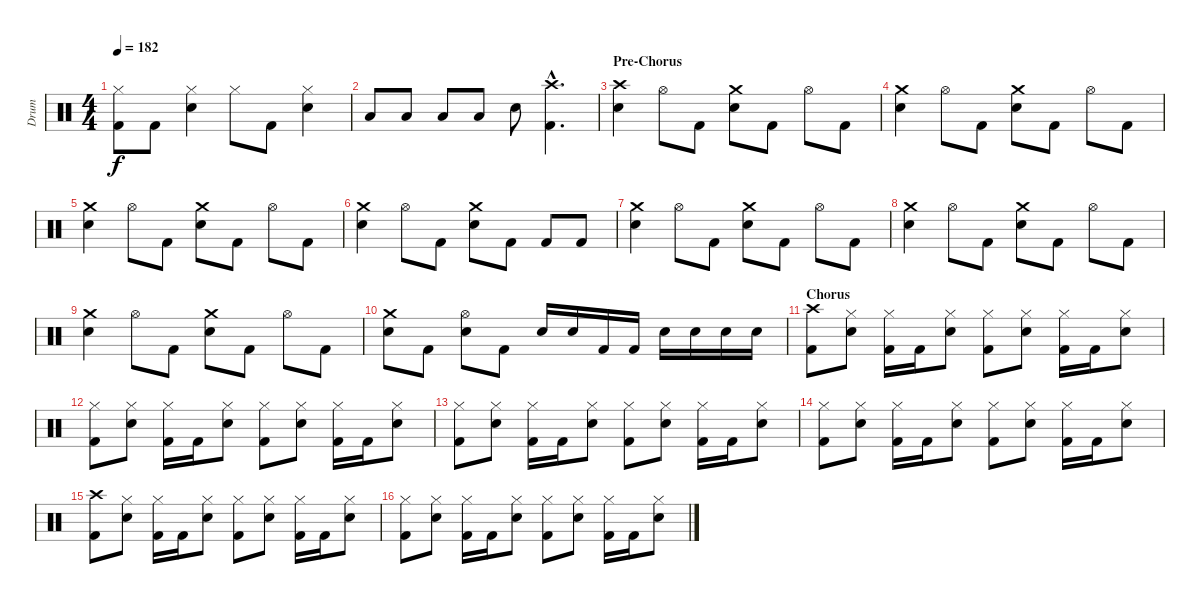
\track ("Drum" "Drum") {instrument percussion}
\staff {score}
\articulation defaults
\ts (4 4)
\tempo 182
\clef neutral
\ks c
("Hi-Hat (closed)" "Kick (hit) 2").8{dy f} "Kick (hit) 2".8 ("Hi-Hat (closed)" "Electric Snare (hit)").4 "Hi-Hat (closed)".8 "Kick (hit) 2".8 ("Hi-Hat (closed)" "Electric Snare (hit)").4 |
"Low Tom (hit)".8 "Low Tom (hit)".8 "Low Tom (hit)".8 "Low Tom (hit)".8 "Electric Snare (hit)".8 ("Crash high (hit)"{hac} "Kick (hit) 2"{hac}).4{d} |
\section ("" "Pre-Chorus")
("Crash high (hit)" "Electric Snare (hit)").4 "Hi-Hat (open)".8 "Kick (hit) 2".8 ("Crash medium (hit)" "Electric Snare (hit)").8 "Kick (hit) 2".8 "Hi-Hat (open)".8 "Kick (hit) 2".8 |
("Crash medium (hit)" "Electric Snare (hit)").4 "Hi-Hat (open)".8 "Kick (hit) 2".8 ("Crash medium (hit)" "Electric Snare (hit)").8 "Kick (hit) 2".8 "Hi-Hat (open)".8 "Kick (hit) 2".8 |
("Crash medium (hit)" "Electric Snare (hit)").4 "Hi-Hat (open)".8 "Kick (hit) 2".8 ("Crash medium (hit)" "Electric Snare (hit)").8 "Kick (hit) 2".8 "Hi-Hat (open)".8 "Kick (hit) 2".8 |
("Crash medium (hit)" "Electric Snare (hit)").4 "Hi-Hat (open)".8 "Kick (hit) 2".8 ("Crash medium (hit)" "Electric Snare (hit)").8 "Kick (hit) 2".8 "Kick (hit) 2".8 "Kick (hit) 2".8 |
("Crash medium (hit)" "Electric Snare (hit)").4 "Hi-Hat (open)".8 "Kick (hit) 2".8 ("Crash medium (hit)" "Electric Snare (hit)").8 "Kick (hit) 2".8 "Hi-Hat (open)".8 "Kick (hit) 2".8 |
("Crash medium (hit)" "Electric Snare (hit)").4 "Hi-Hat (open)".8 "Kick (hit) 2".8 ("Crash medium (hit)" "Electric Snare (hit)").8 "Kick (hit) 2".8 "Hi-Hat (open)".8 "Kick (hit) 2".8 |
("Crash medium (hit)" "Electric Snare (hit)").4 "Hi-Hat (open)".8 "Kick (hit) 2".8 ("Crash medium (hit)" "Electric Snare (hit)").8 "Kick (hit) 2".8 "Hi-Hat (open)".8 "Kick (hit) 2".8 |
("Crash medium (hit)" "Electric Snare (hit)").8 "Kick (hit) 2".8 ("Hi-Hat (open)" "Electric Snare (hit)").8 "Kick (hit) 2".8 "Electric Snare (hit)".16 "Electric Snare (hit)".16 "Kick (hit) 2".16 "Kick (hit) 2".16 "Electric Snare (hit)".16 "Electric Snare (hit)".16 "Electric Snare (hit)".16 "Electric Snare (hit)".16 |
\section ("" "Chorus")
("Crash high (hit)" "Kick (hit) 2").8 ("Hi-Hat (closed)" "Electric Snare (hit)").8 ("Hi-Hat (closed)" "Kick (hit) 2").16 "Kick (hit) 2".16 ("Hi-Hat (closed)" "Electric Snare (hit)").8 ("Hi-Hat (closed)" "Kick (hit) 2").8 ("Hi-Hat (closed)" "Electric Snare (hit)").8 ("Hi-Hat (closed)" "Kick (hit) 2").16 "Kick (hit) 2".16 ("Hi-Hat (closed)" "Electric Snare (hit)").8 |
("Hi-Hat (closed)" "Kick (hit) 2").8 ("Hi-Hat (closed)" "Electric Snare (hit)").8 ("Hi-Hat (closed)" "Kick (hit) 2").16 "Kick (hit) 2".16 ("Hi-Hat (closed)" "Electric Snare (hit)").8 ("Hi-Hat (closed)" "Kick (hit) 2").8 ("Hi-Hat (closed)" "Electric Snare (hit)").8 ("Hi-Hat (closed)" "Kick (hit) 2").16 "Kick (hit) 2".16 ("Hi-Hat (closed)" "Electric Snare (hit)").8 |
("Hi-Hat (closed)" "Kick (hit) 2").8 ("Hi-Hat (closed)" "Electric Snare (hit)").8 ("Hi-Hat (closed)" "Kick (hit) 2").16 "Kick (hit) 2".16 ("Hi-Hat (closed)" "Electric Snare (hit)").8 ("Hi-Hat (closed)" "Kick (hit) 2").8 ("Hi-Hat (closed)" "Electric Snare (hit)").8 ("Hi-Hat (closed)" "Kick (hit) 2").16 "Kick (hit) 2".16 ("Hi-Hat (closed)" "Electric Snare (hit)").8 |
("Hi-Hat (closed)" "Kick (hit) 2").8 ("Hi-Hat (closed)" "Electric Snare (hit)").8 ("Hi-Hat (closed)" "Kick (hit) 2").16 "Kick (hit) 2".16 ("Hi-Hat (closed)" "Electric Snare (hit)").8 ("Hi-Hat (closed)" "Kick (hit) 2").8 ("Hi-Hat (closed)" "Electric Snare (hit)").8 ("Hi-Hat (closed)" "Kick (hit) 2").16 "Kick (hit) 2".16 ("Hi-Hat (closed)" "Electric Snare (hit)").8 |
("Crash high (hit)" "Kick (hit) 2").8 ("Hi-Hat (closed)" "Electric Snare (hit)").8 ("Hi-Hat (closed)" "Kick (hit) 2").16 "Kick (hit) 2".16 ("Hi-Hat (closed)" "Electric Snare (hit)").8 ("Hi-Hat (closed)" "Kick (hit) 2").8 ("Hi-Hat (closed)" "Electric Snare (hit)").8 ("Hi-Hat (closed)" "Kick (hit) 2").16 "Kick (hit) 2".16 ("Hi-Hat (closed)" "Electric Snare (hit)").8 |
("Hi-Hat (closed)" "Kick (hit) 2").8 ("Hi-Hat (closed)" "Electric Snare (hit)").8 ("Hi-Hat (closed)" "Kick (hit) 2").16 "Kick (hit) 2".16 ("Hi-Hat (closed)" "Electric Snare (hit)").8 ("Hi-Hat (closed)" "Kick (hit) 2").8 ("Hi-Hat (closed)" "Electric Snare (hit)").8 ("Hi-Hat (closed)" "Kick (hit) 2").16 "Kick (hit) 2".16 ("Hi-Hat (closed)" "Electric Snare (hit)").8
